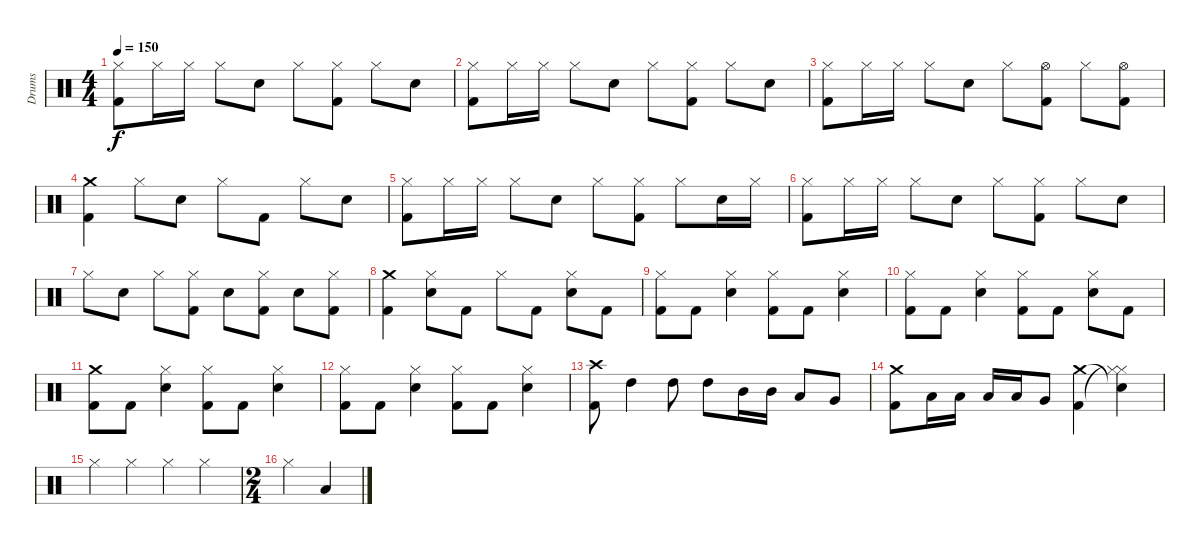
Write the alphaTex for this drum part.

\track ("Drums" "Drums") {instrument percussion}
\staff {score}
\articulation defaults
\ts (4 4)
\tempo 150
\clef neutral
\ks c
("Hi-Hat (closed)" "Kick (hit) 2").8{dy f} "Hi-Hat (closed)".16 "Hi-Hat (closed)".16 "Hi-Hat (closed)".8 "Electric Snare (hit)".8 "Hi-Hat (closed)".8 ("Hi-Hat (closed)" "Kick (hit) 2").8 "Hi-Hat (closed)".8 "Electric Snare (hit)".8 |
("Hi-Hat (closed)" "Kick (hit) 2").8 "Hi-Hat (closed)".16 "Hi-Hat (closed)".16 "Hi-Hat (closed)".8 "Electric Snare (hit)".8 "Hi-Hat (closed)".8 ("Hi-Hat (closed)" "Kick (hit) 2").8 "Hi-Hat (closed)".8 "Electric Snare (hit)".8 |
("Hi-Hat (closed)" "Kick (hit) 2").8 "Hi-Hat (closed)".16 "Hi-Hat (closed)".16 "Hi-Hat (closed)".8 "Electric Snare (hit)".8 "Hi-Hat (closed)".8 ("Hi-Hat (open)" "Kick (hit) 2").8 "Hi-Hat (closed)".8 ("Hi-Hat (open)" "Kick (hit) 2").8 |
("Crash medium (hit)" "Kick (hit) 2").4 "Hi-Hat (closed)".8 "Electric Snare (hit)".8 "Hi-Hat (closed)".8 "Kick (hit) 2".8 "Hi-Hat (closed)".8 "Electric Snare (hit)".8 |
("Hi-Hat (closed)" "Kick (hit) 2").8 "Hi-Hat (closed)".16 "Hi-Hat (closed)".16 "Hi-Hat (closed)".8 "Electric Snare (hit)".8 "Hi-Hat (closed)".8 ("Hi-Hat (closed)" "Kick (hit) 2").8 "Hi-Hat (closed)".8 "Electric Snare (hit)".16 "Hi-Hat (closed)".16 |
("Hi-Hat (closed)" "Kick (hit) 2").8 "Hi-Hat (closed)".16 "Hi-Hat (closed)".16 "Hi-Hat (closed)".8 "Electric Snare (hit)".8 "Hi-Hat (closed)".8 ("Hi-Hat (closed)" "Kick (hit) 2").8 "Hi-Hat (closed)".8 "Electric Snare (hit)".8 |
"Hi-Hat (closed)".8 "Electric Snare (hit)".8 "Hi-Hat (closed)".8 ("Hi-Hat (closed)" "Kick (hit) 2").8 "Electric Snare (hit)".8 ("Hi-Hat (closed)" "Kick (hit) 2").8 "Electric Snare (hit)".8 ("Hi-Hat (closed)" "Kick (hit) 2").8 |
("Crash medium (hit)" "Kick (hit) 2").4 ("Hi-Hat (closed)" "Electric Snare (hit)").8 "Kick (hit) 2".8 "Hi-Hat (closed)".8 "Kick (hit) 2".8 ("Hi-Hat (closed)" "Electric Snare (hit)").8 "Kick (hit) 2".8 |
("Hi-Hat (closed)" "Kick (hit) 2").8 "Kick (hit) 2".8 ("Hi-Hat (closed)" "Electric Snare (hit)").4 ("Hi-Hat (closed)" "Kick (hit) 2").8 "Kick (hit) 2".8 ("Hi-Hat (closed)" "Electric Snare (hit)").4 |
("Hi-Hat (closed)" "Kick (hit) 2").8 "Kick (hit) 2".8 ("Hi-Hat (closed)" "Electric Snare (hit)").4 ("Hi-Hat (closed)" "Kick (hit) 2").8 "Kick (hit) 2".8 ("Hi-Hat (closed)" "Electric Snare (hit)").8 "Kick (hit) 2".8 |
("Crash medium (hit)" "Kick (hit) 2").8 "Kick (hit) 2".8 ("Hi-Hat (closed)" "Electric Snare (hit)").4 ("Hi-Hat (closed)" "Kick (hit) 2").8 "Kick (hit) 2".8 ("Hi-Hat (closed)" "Electric Snare (hit)").4 |
("Hi-Hat (closed)" "Kick (hit) 2").8 "Kick (hit) 2".8 ("Hi-Hat (closed)" "Electric Snare (hit)").4 ("Hi-Hat (closed)" "Kick (hit) 2").8 "Kick (hit) 2".8 ("Hi-Hat (closed)" "Electric Snare (hit)").4 |
("Crash high (hit)" "Kick (hit) 2").8 "High Tom (hit)".4 "High Tom (hit)".8 "High Tom (hit)".8 "Mid Tom (hit)".16 "Mid Tom (hit)".16 "Low Tom (hit)".8 "Very Low Tom (hit)".8 |
("Crash medium (hit)" "Kick (hit) 2").8 "Low Tom (hit)".16 "Low Tom (hit)".16 "Low Tom (hit)".16 "Low Tom (hit)".16 "Very Low Tom (hit)".8 ("Crash medium (hit)" "Kick (hit) 2").4 ("Snare (hit)"{t} "Hi-Hat (closed)"{t} "Hi-Hat (closed)").4 |
"Hi-Hat (closed)".4 "Hi-Hat (closed)".4 "Hi-Hat (closed)".4 "Hi-Hat (closed)".4 |
\ts (2 4)
"Hi-Hat (closed)".4 "Low Tom (hit)".4
